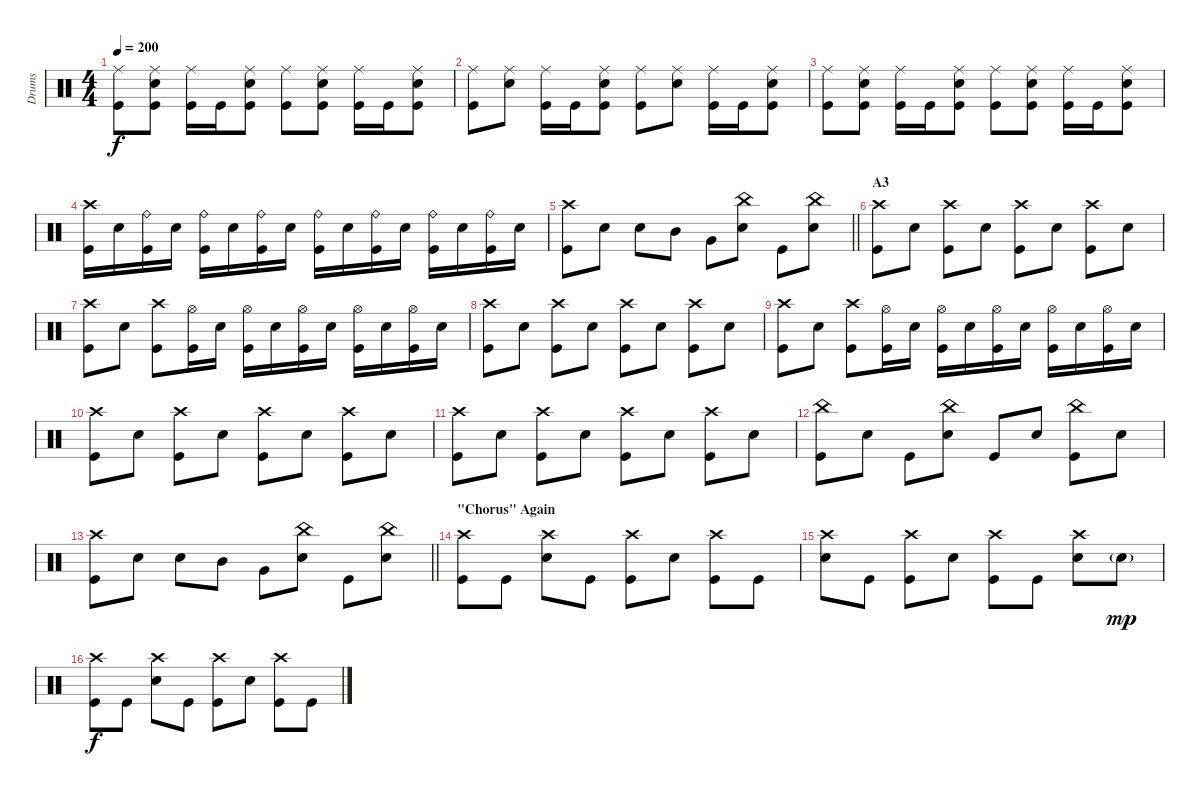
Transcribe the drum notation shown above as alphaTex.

\track ("Drums" "Drums") {instrument percussion}
\staff {score}
\articulation defaults
\ts (4 4)
\tempo 200
\clef neutral
\ks c
("Ride (middle)" "Kick (hit)").8{dy f} ("Ride (middle)" "Electric Snare (hit)" "Kick (hit)").8 ("Ride (middle)" "Kick (hit)").16 "Kick (hit)".16 ("Ride (middle)" "Electric Snare (hit)" "Kick (hit)").8 ("Ride (middle)" "Kick (hit)").8 ("Ride (middle)" "Electric Snare (hit)" "Kick (hit)").8 ("Ride (middle)" "Kick (hit)").16 "Kick (hit)".16 ("Ride (middle)" "Electric Snare (hit)" "Kick (hit)").8 |
("Ride (middle)" "Kick (hit)").8 ("Ride (middle)" "Electric Snare (hit)").8 ("Ride (middle)" "Kick (hit)").16 "Kick (hit)".16 ("Ride (middle)" "Electric Snare (hit)" "Kick (hit)").8 ("Ride (middle)" "Kick (hit)").8 ("Ride (middle)" "Electric Snare (hit)").8 ("Ride (middle)" "Kick (hit)").16 "Kick (hit)".16 ("Ride (middle)" "Electric Snare (hit)" "Kick (hit)").8 |
("Ride (middle)" "Kick (hit)").8 ("Ride (middle)" "Electric Snare (hit)" "Kick (hit)").8 ("Ride (middle)" "Kick (hit)").16 "Kick (hit)".16 ("Ride (middle)" "Electric Snare (hit)" "Kick (hit)").8 ("Ride (middle)" "Kick (hit)").8 ("Ride (middle)" "Electric Snare (hit)" "Kick (hit)").8 ("Ride (middle)" "Kick (hit)").16 "Kick (hit)".16 ("Ride (middle)" "Electric Snare (hit)" "Kick (hit)").8 |
("Crash high (hit)" "Kick (hit)").16 "Electric Snare (hit)".16 ("Ride (bell)" "Kick (hit)").16 "Electric Snare (hit)".16 ("Ride (bell)" "Kick (hit)").16 "Electric Snare (hit)".16 ("Ride (bell)" "Kick (hit)").16 "Electric Snare (hit)".16 ("Ride (bell)" "Kick (hit)").16 "Electric Snare (hit)".16 ("Ride (bell)" "Kick (hit)").16 "Electric Snare (hit)".16 ("Ride (bell)" "Kick (hit)").16 "Electric Snare (hit)".16 ("Ride (bell)" "Kick (hit)").16 "Electric Snare (hit)".16 |
\barLineRight lightlight
("Crash high (hit)" "Kick (hit)").8 "Electric Snare (hit)".8 "Electric Snare (hit)".8 "Mid Tom (hit)".8 "Very Low Tom (hit)".8 ("China (hit)" "Electric Snare (hit)").8 "Kick (hit)".8 ("China (hit)" "Electric Snare (hit)").8 |
\section ("" "A3")
("Crash high (hit)" "Kick (hit)").8 "Electric Snare (hit)".8 ("Crash high (hit)" "Kick (hit)").8 "Electric Snare (hit)".8 ("Crash high (hit)" "Kick (hit)").8 "Electric Snare (hit)".8 ("Crash high (hit)" "Kick (hit)").8 "Electric Snare (hit)".8 |
("Crash high (hit)" "Kick (hit)").8 "Electric Snare (hit)".8 ("Crash high (hit)" "Kick (hit)").8 ("Hi-Hat (open)" "Kick (hit)").16 "Electric Snare (hit)".16 ("Hi-Hat (open)" "Kick (hit)").16 "Electric Snare (hit)".16 ("Hi-Hat (open)" "Kick (hit)").16 "Electric Snare (hit)".16 ("Hi-Hat (open)" "Kick (hit)").16 "Electric Snare (hit)".16 ("Hi-Hat (open)" "Kick (hit)").16 "Electric Snare (hit)".16 |
("Crash high (hit)" "Kick (hit)").8 "Electric Snare (hit)".8 ("Crash high (hit)" "Kick (hit)").8 "Electric Snare (hit)".8 ("Crash high (hit)" "Kick (hit)").8 "Electric Snare (hit)".8 ("Crash high (hit)" "Kick (hit)").8 "Electric Snare (hit)".8 |
("Crash high (hit)" "Kick (hit)").8 "Electric Snare (hit)".8 ("Crash high (hit)" "Kick (hit)").8 ("Hi-Hat (open)" "Kick (hit)").16 "Electric Snare (hit)".16 ("Hi-Hat (open)" "Kick (hit)").16 "Electric Snare (hit)".16 ("Hi-Hat (open)" "Kick (hit)").16 "Electric Snare (hit)".16 ("Hi-Hat (open)" "Kick (hit)").16 "Electric Snare (hit)".16 ("Hi-Hat (open)" "Kick (hit)").16 "Electric Snare (hit)".16 |
("Crash high (hit)" "Kick (hit)").8 "Electric Snare (hit)".8 ("Crash high (hit)" "Kick (hit)").8 "Electric Snare (hit)".8 ("Crash high (hit)" "Kick (hit)").8 "Electric Snare (hit)".8 ("Crash high (hit)" "Kick (hit)").8 "Electric Snare (hit)".8 |
("Crash high (hit)" "Kick (hit)").8 "Electric Snare (hit)".8 ("Crash high (hit)" "Kick (hit)").8 "Electric Snare (hit)".8 ("Crash high (hit)" "Kick (hit)").8 "Electric Snare (hit)".8 ("Crash high (hit)" "Kick (hit)").8 "Electric Snare (hit)".8 |
("China (hit)" "Kick (hit)").8 "Electric Snare (hit)".8 "Kick (hit)".8 ("China (hit)" "Electric Snare (hit)").8 "Kick (hit)".8 "Electric Snare (hit)".8 ("China (hit)" "Kick (hit)").8 "Electric Snare (hit)".8 |
\barLineRight lightlight
("Crash high (hit)" "Kick (hit)").8 "Electric Snare (hit)".8 "Electric Snare (hit)".8 "Mid Tom (hit)".8 "Very Low Tom (hit)".8 ("China (hit)" "Electric Snare (hit)").8 "Kick (hit)".8 ("China (hit)" "Electric Snare (hit)").8 |
\section ("" "\"Chorus\" Again")
("Crash high (hit)" "Kick (hit)").8 "Kick (hit)".8 ("Crash high (hit)" "Electric Snare (hit)").8 "Kick (hit)".8 ("Crash high (hit)" "Kick (hit)").8 "Electric Snare (hit)".8 ("Crash high (hit)" "Kick (hit)").8 "Kick (hit)".8 |
("Crash high (hit)" "Electric Snare (hit)").8 "Kick (hit)".8 ("Crash high (hit)" "Kick (hit)").8 "Electric Snare (hit)".8 ("Crash high (hit)" "Kick (hit)").8 "Kick (hit)".8 ("Crash high (hit)" "Electric Snare (hit)").8 "Electric Snare (hit)"{g}.8{dy mp} |
("Crash high (hit)" "Kick (hit)").8{dy f} "Kick (hit)".8 ("Crash high (hit)" "Electric Snare (hit)").8 "Kick (hit)".8 ("Crash high (hit)" "Kick (hit)").8 "Electric Snare (hit)".8 ("Crash high (hit)" "Kick (hit)").8 "Kick (hit)".8
